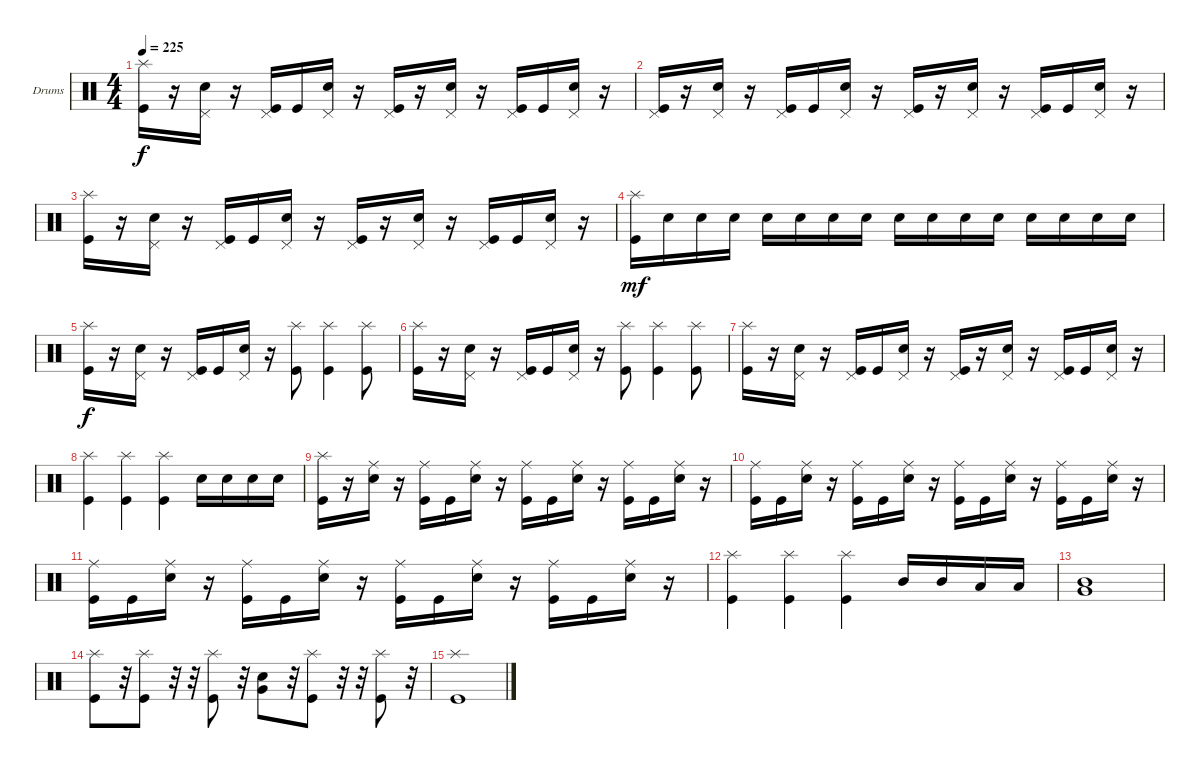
\bracketExtendMode groupsimilarinstruments
\firstSystemTrackNameOrientation horizontal
\otherSystemsTrackNameOrientation horizontal
\track ("Drumkit" "Drums") {instrument percussion}
\staff {score}
\articulation defaults
\ts (4 4)
\tempo 225
\clef neutral
\scale
0.333333
\ks c
("Kick (hit)" "Splash (hit)").16{dy f} r.16 ("Pedal Hi-Hat (hit)" "Snare (hit) 2").16 r.16 ("Pedal Hi-Hat (hit)" "Kick (hit)").16 "Kick (hit)".16 ("Pedal Hi-Hat (hit)" "Snare (hit) 2").16 r.16 ("Pedal Hi-Hat (hit)" "Kick (hit)").16 r.16 ("Pedal Hi-Hat (hit)" "Snare (hit) 2").16 r.16 ("Pedal Hi-Hat (hit)" "Kick (hit)").16 "Kick (hit)".16 ("Pedal Hi-Hat (hit)" "Snare (hit) 2").16 r.16 |
\scale
0.333333 ("Kick (hit)" "Pedal Hi-Hat (hit)").16 r.16 ("Pedal Hi-Hat (hit)" "Snare (hit) 2").16 r.16 ("Pedal Hi-Hat (hit)" "Kick (hit)").16 "Kick (hit)".16 ("Pedal Hi-Hat (hit)" "Snare (hit) 2").16 r.16 ("Pedal Hi-Hat (hit)" "Kick (hit)").16 r.16 ("Pedal Hi-Hat (hit)" "Snare (hit) 2").16 r.16 ("Pedal Hi-Hat (hit)" "Kick (hit)").16 "Kick (hit)".16 ("Pedal Hi-Hat (hit)" "Snare (hit) 2").16 r.16 |
\scale
0.333333 ("Kick (hit)" "Splash (hit)").16 r.16 ("Pedal Hi-Hat (hit)" "Snare (hit) 2").16 r.16 ("Pedal Hi-Hat (hit)" "Kick (hit)").16 "Kick (hit)".16 ("Pedal Hi-Hat (hit)" "Snare (hit) 2").16 r.16 ("Pedal Hi-Hat (hit)" "Kick (hit)").16 r.16 ("Pedal Hi-Hat (hit)" "Snare (hit) 2").16 r.16 ("Pedal Hi-Hat (hit)" "Kick (hit)").16 "Kick (hit)".16 ("Pedal Hi-Hat (hit)" "Snare (hit) 2").16 r.16 |
\scale
0.333333 ("Kick (hit)" "Splash (hit)").16{dy mf} "Snare (hit) 2".16 "Snare (hit) 2".16 "Snare (hit) 2".16 "Snare (hit) 2".16 "Snare (hit) 2".16 "Snare (hit) 2".16 "Snare (hit) 2".16 "Snare (hit) 2".16 "Snare (hit) 2".16 "Snare (hit) 2".16 "Snare (hit) 2".16 "Snare (hit) 2".16 "Snare (hit) 2".16 "Snare (hit) 2".16 "Snare (hit) 2".16 |
\scale
0.333333 ("Kick (hit)" "Splash (hit)").16{dy f} r.16 ("Pedal Hi-Hat (hit)" "Snare (hit) 2").16 r.16 ("Pedal Hi-Hat (hit)" "Kick (hit)").16 "Kick (hit)".16 ("Pedal Hi-Hat (hit)" "Snare (hit) 2").16 r.16 ("Kick (hit)" "Splash (hit)").8 ("Kick (hit)" "Splash (hit)").4 ("Kick (hit)" "Splash (hit)").8 |
\scale
0.333333 ("Kick (hit)" "Splash (hit)").16 r.16 ("Pedal Hi-Hat (hit)" "Snare (hit) 2").16 r.16 ("Pedal Hi-Hat (hit)" "Kick (hit)").16 "Kick (hit)".16 ("Pedal Hi-Hat (hit)" "Snare (hit) 2").16 r.16 ("Kick (hit)" "Splash (hit)").8 ("Kick (hit)" "Splash (hit)").4 ("Kick (hit)" "Splash (hit)").8 |
\scale
0.333333 ("Kick (hit)" "Splash (hit)").16 r.16 ("Pedal Hi-Hat (hit)" "Snare (hit) 2").16 r.16 ("Pedal Hi-Hat (hit)" "Kick (hit)").16 "Kick (hit)".16 ("Pedal Hi-Hat (hit)" "Snare (hit) 2").16 r.16 ("Pedal Hi-Hat (hit)" "Kick (hit)").16 r.16 ("Pedal Hi-Hat (hit)" "Snare (hit) 2").16 r.16 ("Pedal Hi-Hat (hit)" "Kick (hit)").16 "Kick (hit)".16 ("Pedal Hi-Hat (hit)" "Snare (hit) 2").16 r.16 |
\scale
0.333333 ("Kick (hit)" "Splash (hit)").4 ("Splash (hit)" "Kick (hit)").4 ("Splash (hit)" "Kick (hit)").4 "Snare (hit) 2".16 "Snare (hit) 2".16 "Snare (hit) 2".16 "Snare (hit) 2".16 |
\scale
0.333333 ("Kick (hit)" "Splash (hit)").16 r.16 ("Snare (hit) 2" "Ride (middle)").16 r.16 ("Kick (hit)" "Ride (middle)").16 "Kick (hit)".16 ("Snare (hit) 2" "Ride (middle)").16 r.16 ("Kick (hit)" "Ride (middle)").16 "Kick (hit)".16 ("Snare (hit) 2" "Ride (middle)").16 r.16 ("Kick (hit)" "Ride (middle)").16 "Kick (hit)".16 ("Snare (hit) 2" "Ride (middle)").16 r.16 |
\scale
0.333333 ("Kick (hit)" "Ride (middle)").16 "Kick (hit)".16 ("Snare (hit) 2" "Ride (middle)").16 r.16 ("Kick (hit)" "Ride (middle)").16 "Kick (hit)".16 ("Snare (hit) 2" "Ride (middle)").16 r.16 ("Kick (hit)" "Ride (middle)").16 "Kick (hit)".16 ("Snare (hit) 2" "Ride (middle)").16 r.16 ("Kick (hit)" "Ride (middle)").16 "Kick (hit)".16 ("Snare (hit) 2" "Ride (middle)").16 r.16 |
\scale
0.333333 ("Kick (hit)" "Ride (middle)").16 "Kick (hit)".16 ("Snare (hit) 2" "Ride (middle)").16 r.16 ("Kick (hit)" "Ride (middle)").16 "Kick (hit)".16 ("Snare (hit) 2" "Ride (middle)").16 r.16 ("Kick (hit)" "Ride (middle)").16 "Kick (hit)".16 ("Snare (hit) 2" "Ride (middle)").16 r.16 ("Kick (hit)" "Ride (middle)").16 "Kick (hit)".16 ("Snare (hit) 2" "Ride (middle)").16 r.16 |
\scale
0.333333 ("Kick (hit)" "Splash (hit)").4 ("Splash (hit)" "Kick (hit)").4 ("Splash (hit)" "Kick (hit)").4 "Mid Tom (hit)".16 "Mid Tom (hit)".16 "Low Tom (hit)".16 "Low Tom (hit)".16 |
\scale
0.333333 ("Very Low Tom (hit)" "Mid Tom (hit)").1 |
\scale
0.333333 ("Kick (hit)" "Splash (hit)").8 r.32 ("Splash (hit)" "Kick (hit)").8 r.32 r.32 ("Splash (hit)" "Kick (hit)").8 r.32 ("Snare (hit) 2" "Very Low Tom (hit)").8 r.32 ("Splash (hit)" "Kick (hit)").8 r.32 r.32 ("Splash (hit)" "Kick (hit)").8 r.32 |
("Kick (hit)" "Splash (hit)").1
